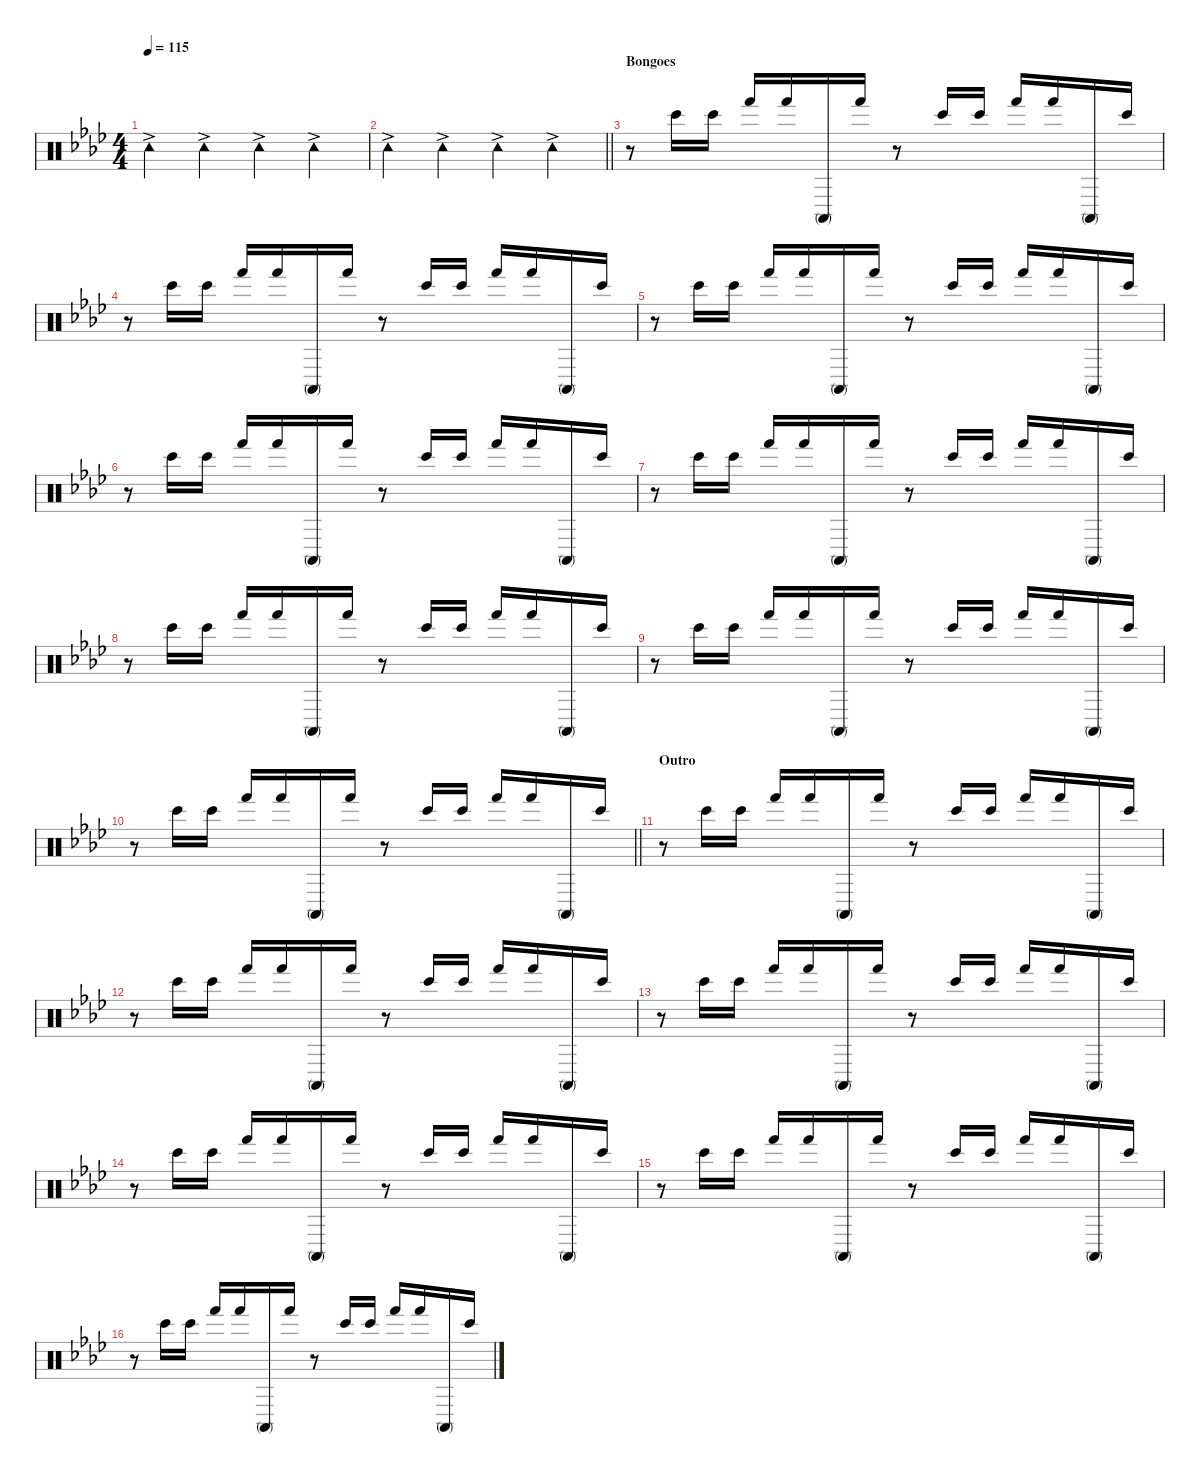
\defaultSystemsLayout 4
\hideDynamics
\bracketExtendMode nobrackets
\singleTrackTrackNamePolicy hidden
\multiTrackTrackNamePolicy hidden
\firstSystemTrackNameMode fullname
\firstSystemTrackNameOrientation horizontal
\otherSystemsTrackNameOrientation horizontal
\track ("Percussion" "drm.") {instrument percussion}
\staff {score}
\articulation defaults
\ts (4 4)
\tempo 115
\clef neutral
\ks ab "Tambourine (hit)"{ac acc forcenatural}.4{dy f beam Down} "Tambourine (hit)"{ac acc forcenatural}.4{beam Down} "Tambourine (hit)"{ac acc forcenatural}.4{beam Down} "Tambourine (hit)"{ac acc forcenatural}.4{beam Down}
|
\barLineRight lightlight "Tambourine (hit)"{ac acc forcenatural}.4{beam Down} "Tambourine (hit)"{ac acc forcenatural}.4{beam Down} "Tambourine (hit)"{ac acc forcenatural}.4{beam Down} "Tambourine (hit)"{ac acc forcenatural}.4{beam Down}
|
\section ("" "Bongoes")
r.8{beam Down} "Bongo High (hit)"{acc forcenatural}.16{dy p beam Down} "Bongo High (hit)"{acc forcenatural}.16{beam Down} "Hand (hit)"{acc forcenatural}.16{dy pp beam Up} "Hand (hit)"{acc forcenatural}.16{beam Up} "Conga high (mute)"{acc forcenatural}.16{beam Up} "Hand (hit)"{acc forcenatural}.16{beam Up} r.8{beam Up} "Bongo High (hit)"{acc forcenatural}.16{dy p beam Down} "Bongo High (hit)"{acc forcenatural}.16{beam Down} "Hand (hit)"{acc forcenatural}.16{beam Up} "Hand (hit)"{acc forcenatural}.16{dy pp beam Up} "Conga high (mute)"{acc forcenatural}.16{beam Up} "Bongo High (hit)"{acc forcenatural}.16{dy p beam Up} |
r.8{beam Down} "Bongo High (hit)"{acc forcenatural}.16{beam Down} "Bongo High (hit)"{acc forcenatural}.16{beam Down} "Hand (hit)"{acc forcenatural}.16{dy pp beam Up} "Hand (hit)"{acc forcenatural}.16{beam Up} "Conga high (mute)"{acc forcenatural}.16{beam Up} "Hand (hit)"{acc forcenatural}.16{beam Up} r.8{beam Up} "Bongo High (hit)"{acc forcenatural}.16{dy p beam Down} "Bongo High (hit)"{acc forcenatural}.16{beam Down} "Hand (hit)"{acc forcenatural}.16{beam Up} "Hand (hit)"{acc forcenatural}.16{dy pp beam Up} "Conga high (mute)"{acc forcenatural}.16{beam Up} "Bongo High (hit)"{acc forcenatural}.16{dy p beam Up} |
r.8{beam Down} "Bongo High (hit)"{acc forcenatural}.16{beam Down} "Bongo High (hit)"{acc forcenatural}.16{beam Down} "Hand (hit)"{acc forcenatural}.16{dy pp beam Up} "Hand (hit)"{acc forcenatural}.16{beam Up} "Conga high (mute)"{acc forcenatural}.16{beam Up} "Hand (hit)"{acc forcenatural}.16{beam Up} r.8{beam Up} "Bongo High (hit)"{acc forcenatural}.16{dy p beam Down} "Bongo High (hit)"{acc forcenatural}.16{beam Down} "Hand (hit)"{acc forcenatural}.16{beam Up} "Hand (hit)"{acc forcenatural}.16{dy pp beam Up} "Conga high (mute)"{acc forcenatural}.16{beam Up} "Bongo High (hit)"{acc forcenatural}.16{dy p beam Up} |
r.8{beam Down} "Bongo High (hit)"{acc forcenatural}.16{beam Down} "Bongo High (hit)"{acc forcenatural}.16{beam Down} "Hand (hit)"{acc forcenatural}.16{dy pp beam Up} "Hand (hit)"{acc forcenatural}.16{beam Up} "Conga high (mute)"{acc forcenatural}.16{beam Up} "Hand (hit)"{acc forcenatural}.16{beam Up} r.8{beam Up} "Bongo High (hit)"{acc forcenatural}.16{dy p beam Down} "Bongo High (hit)"{acc forcenatural}.16{beam Down} "Hand (hit)"{acc forcenatural}.16{beam Up} "Hand (hit)"{acc forcenatural}.16{dy pp beam Up} "Conga high (mute)"{acc forcenatural}.16{beam Up} "Bongo High (hit)"{acc forcenatural}.16{dy p beam Up} |
r.8{beam Down} "Bongo High (hit)"{acc forcenatural}.16{beam Down} "Bongo High (hit)"{acc forcenatural}.16{beam Down} "Hand (hit)"{acc forcenatural}.16{dy pp beam Up} "Hand (hit)"{acc forcenatural}.16{beam Up} "Conga high (mute)"{acc forcenatural}.16{beam Up} "Hand (hit)"{acc forcenatural}.16{beam Up} r.8{beam Up} "Bongo High (hit)"{acc forcenatural}.16{dy p beam Down} "Bongo High (hit)"{acc forcenatural}.16{beam Down} "Hand (hit)"{acc forcenatural}.16{beam Up} "Hand (hit)"{acc forcenatural}.16{dy pp beam Up} "Conga high (mute)"{acc forcenatural}.16{beam Up} "Bongo High (hit)"{acc forcenatural}.16{dy p beam Up} |
r.8{beam Down} "Bongo High (hit)"{acc forcenatural}.16{beam Down} "Bongo High (hit)"{acc forcenatural}.16{beam Down} "Hand (hit)"{acc forcenatural}.16{dy pp beam Up} "Hand (hit)"{acc forcenatural}.16{beam Up} "Conga high (mute)"{acc forcenatural}.16{beam Up} "Hand (hit)"{acc forcenatural}.16{beam Up} r.8{beam Up} "Bongo High (hit)"{acc forcenatural}.16{dy p beam Down} "Bongo High (hit)"{acc forcenatural}.16{beam Down} "Hand (hit)"{acc forcenatural}.16{beam Up} "Hand (hit)"{acc forcenatural}.16{dy pp beam Up} "Conga high (mute)"{acc forcenatural}.16{beam Up} "Bongo High (hit)"{acc forcenatural}.16{dy p beam Up} |
r.8{beam Down} "Bongo High (hit)"{acc forcenatural}.16{beam Down} "Bongo High (hit)"{acc forcenatural}.16{beam Down} "Hand (hit)"{acc forcenatural}.16{dy pp beam Up} "Hand (hit)"{acc forcenatural}.16{beam Up} "Conga high (mute)"{acc forcenatural}.16{beam Up} "Hand (hit)"{acc forcenatural}.16{beam Up} r.8{beam Up} "Bongo High (hit)"{acc forcenatural}.16{dy p beam Down} "Bongo High (hit)"{acc forcenatural}.16{beam Down} "Hand (hit)"{acc forcenatural}.16{beam Up} "Hand (hit)"{acc forcenatural}.16{dy pp beam Up} "Conga high (mute)"{acc forcenatural}.16{beam Up} "Bongo High (hit)"{acc forcenatural}.16{dy p beam Up} |
\barLineRight lightlight
r.8{beam Down} "Bongo High (hit)"{acc forcenatural}.16{beam Down} "Bongo High (hit)"{acc forcenatural}.16{beam Down} "Hand (hit)"{acc forcenatural}.16{dy pp beam Up} "Hand (hit)"{acc forcenatural}.16{beam Up} "Conga high (mute)"{acc forcenatural}.16{beam Up} "Hand (hit)"{acc forcenatural}.16{beam Up} r.8{beam Up} "Bongo High (hit)"{acc forcenatural}.16{dy p beam Down} "Bongo High (hit)"{acc forcenatural}.16{beam Down} "Hand (hit)"{acc forcenatural}.16{beam Up} "Hand (hit)"{acc forcenatural}.16{dy pp beam Up} "Conga high (mute)"{acc forcenatural}.16{beam Up} "Bongo High (hit)"{acc forcenatural}.16{dy p beam Up} |
\section ("" "Outro")
r.8{beam Down} "Bongo High (hit)"{acc forcenatural}.16{beam Down} "Bongo High (hit)"{acc forcenatural}.16{beam Down} "Hand (hit)"{acc forcenatural}.16{dy pp beam Up} "Hand (hit)"{acc forcenatural}.16{beam Up} "Conga high (mute)"{acc forcenatural}.16{beam Up} "Hand (hit)"{acc forcenatural}.16{beam Up} r.8{beam Up} "Bongo High (hit)"{acc forcenatural}.16{dy p beam Down} "Bongo High (hit)"{acc forcenatural}.16{beam Down} "Hand (hit)"{acc forcenatural}.16{beam Up} "Hand (hit)"{acc forcenatural}.16{dy pp beam Up} "Conga high (mute)"{acc forcenatural}.16{beam Up} "Bongo High (hit)"{acc forcenatural}.16{dy p beam Up} |
r.8{beam Down} "Bongo High (hit)"{acc forcenatural}.16{beam Down} "Bongo High (hit)"{acc forcenatural}.16{beam Down} "Hand (hit)"{acc forcenatural}.16{dy pp beam Up} "Hand (hit)"{acc forcenatural}.16{beam Up} "Conga high (mute)"{acc forcenatural}.16{beam Up} "Hand (hit)"{acc forcenatural}.16{beam Up} r.8{beam Up} "Bongo High (hit)"{acc forcenatural}.16{dy p beam Down} "Bongo High (hit)"{acc forcenatural}.16{beam Down} "Hand (hit)"{acc forcenatural}.16{beam Up} "Hand (hit)"{acc forcenatural}.16{dy pp beam Up} "Conga high (mute)"{acc forcenatural}.16{beam Up} "Bongo High (hit)"{acc forcenatural}.16{dy p beam Up} |
r.8{beam Down} "Bongo High (hit)"{acc forcenatural}.16{beam Down} "Bongo High (hit)"{acc forcenatural}.16{beam Down} "Hand (hit)"{acc forcenatural}.16{dy pp beam Up} "Hand (hit)"{acc forcenatural}.16{beam Up} "Conga high (mute)"{acc forcenatural}.16{beam Up} "Hand (hit)"{acc forcenatural}.16{beam Up} r.8{beam Up} "Bongo High (hit)"{acc forcenatural}.16{dy p beam Down} "Bongo High (hit)"{acc forcenatural}.16{beam Down} "Hand (hit)"{acc forcenatural}.16{beam Up} "Hand (hit)"{acc forcenatural}.16{dy pp beam Up} "Conga high (mute)"{acc forcenatural}.16{beam Up} "Bongo High (hit)"{acc forcenatural}.16{dy p beam Up} |
r.8{beam Down} "Bongo High (hit)"{acc forcenatural}.16{beam Down} "Bongo High (hit)"{acc forcenatural}.16{beam Down} "Hand (hit)"{acc forcenatural}.16{dy pp beam Up} "Hand (hit)"{acc forcenatural}.16{beam Up} "Conga high (mute)"{acc forcenatural}.16{beam Up} "Hand (hit)"{acc forcenatural}.16{beam Up} r.8{beam Up} "Bongo High (hit)"{acc forcenatural}.16{dy p beam Down} "Bongo High (hit)"{acc forcenatural}.16{beam Down} "Hand (hit)"{acc forcenatural}.16{beam Up} "Hand (hit)"{acc forcenatural}.16{dy pp beam Up} "Conga high (mute)"{acc forcenatural}.16{beam Up} "Bongo High (hit)"{acc forcenatural}.16{dy p beam Up} |
r.8{beam Down} "Bongo High (hit)"{acc forcenatural}.16{beam Down} "Bongo High (hit)"{acc forcenatural}.16{beam Down} "Hand (hit)"{acc forcenatural}.16{dy pp beam Up} "Hand (hit)"{acc forcenatural}.16{beam Up} "Conga high (mute)"{acc forcenatural}.16{beam Up} "Hand (hit)"{acc forcenatural}.16{beam Up} r.8{beam Up} "Bongo High (hit)"{acc forcenatural}.16{dy p beam Down} "Bongo High (hit)"{acc forcenatural}.16{beam Down} "Hand (hit)"{acc forcenatural}.16{beam Up} "Hand (hit)"{acc forcenatural}.16{dy pp beam Up} "Conga high (mute)"{acc forcenatural}.16{beam Up} "Bongo High (hit)"{acc forcenatural}.16{dy p beam Up} |
r.8{beam Down} "Bongo High (hit)"{acc forcenatural}.16{beam Down} "Bongo High (hit)"{acc forcenatural}.16{beam Down} "Hand (hit)"{acc forcenatural}.16{dy pp beam Up} "Hand (hit)"{acc forcenatural}.16{beam Up} "Conga high (mute)"{acc forcenatural}.16{beam Up} "Hand (hit)"{acc forcenatural}.16{beam Up} r.8{beam Up} "Bongo High (hit)"{acc forcenatural}.16{dy p beam Down} "Bongo High (hit)"{acc forcenatural}.16{beam Down} "Hand (hit)"{acc forcenatural}.16{beam Up} "Hand (hit)"{acc forcenatural}.16{dy pp beam Up} "Conga high (mute)"{acc forcenatural}.16{beam Up} "Bongo High (hit)"{acc forcenatural}.16{dy p beam Up}
